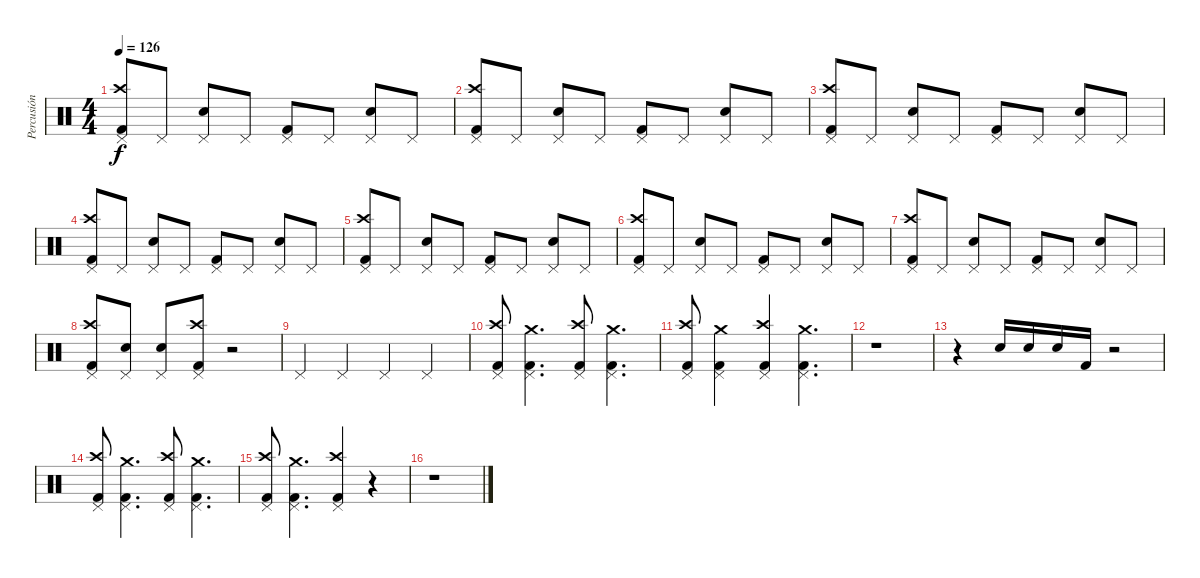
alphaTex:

\track ("Percusión" "Percusión") {instrument percussion}
\staff {score}
\articulation defaults
\ts (4 4)
\tempo 126
\clef neutral
\ks c
("Pedal Hi-Hat (hit)" "Crash high (hit)" "Kick (hit) 2").8{dy f} "Pedal Hi-Hat (hit)".8 ("Pedal Hi-Hat (hit)" "Snare (hit) 2").8 "Pedal Hi-Hat (hit)".8 ("Pedal Hi-Hat (hit)" "Kick (hit) 2").8 "Pedal Hi-Hat (hit)".8 ("Pedal Hi-Hat (hit)" "Snare (hit) 2").8 "Pedal Hi-Hat (hit)".8 |
("Pedal Hi-Hat (hit)" "Crash high (hit)" "Kick (hit) 2").8 "Pedal Hi-Hat (hit)".8 ("Pedal Hi-Hat (hit)" "Snare (hit) 2").8 "Pedal Hi-Hat (hit)".8 ("Pedal Hi-Hat (hit)" "Kick (hit) 2").8 "Pedal Hi-Hat (hit)".8 ("Pedal Hi-Hat (hit)" "Snare (hit) 2").8 "Pedal Hi-Hat (hit)".8 |
("Pedal Hi-Hat (hit)" "Crash high (hit)" "Kick (hit) 2").8 "Pedal Hi-Hat (hit)".8 ("Pedal Hi-Hat (hit)" "Snare (hit) 2").8 "Pedal Hi-Hat (hit)".8 ("Pedal Hi-Hat (hit)" "Kick (hit) 2").8 "Pedal Hi-Hat (hit)".8 ("Pedal Hi-Hat (hit)" "Snare (hit) 2").8 "Pedal Hi-Hat (hit)".8 |
("Pedal Hi-Hat (hit)" "Crash high (hit)" "Kick (hit) 2").8 "Pedal Hi-Hat (hit)".8 ("Pedal Hi-Hat (hit)" "Snare (hit) 2").8 "Pedal Hi-Hat (hit)".8 ("Pedal Hi-Hat (hit)" "Kick (hit) 2").8 "Pedal Hi-Hat (hit)".8 ("Pedal Hi-Hat (hit)" "Snare (hit) 2").8 "Pedal Hi-Hat (hit)".8 |
("Pedal Hi-Hat (hit)" "Crash high (hit)" "Kick (hit) 2").8 "Pedal Hi-Hat (hit)".8 ("Pedal Hi-Hat (hit)" "Snare (hit) 2").8 "Pedal Hi-Hat (hit)".8 ("Pedal Hi-Hat (hit)" "Kick (hit) 2").8 "Pedal Hi-Hat (hit)".8 ("Pedal Hi-Hat (hit)" "Snare (hit) 2").8 "Pedal Hi-Hat (hit)".8 |
("Pedal Hi-Hat (hit)" "Crash high (hit)" "Kick (hit) 2").8 "Pedal Hi-Hat (hit)".8 ("Pedal Hi-Hat (hit)" "Snare (hit) 2").8 "Pedal Hi-Hat (hit)".8 ("Pedal Hi-Hat (hit)" "Kick (hit) 2").8 "Pedal Hi-Hat (hit)".8 ("Pedal Hi-Hat (hit)" "Snare (hit) 2").8 "Pedal Hi-Hat (hit)".8 |
("Pedal Hi-Hat (hit)" "Crash high (hit)" "Kick (hit) 2").8 "Pedal Hi-Hat (hit)".8 ("Pedal Hi-Hat (hit)" "Snare (hit) 2").8 "Pedal Hi-Hat (hit)".8 ("Pedal Hi-Hat (hit)" "Kick (hit) 2").8 "Pedal Hi-Hat (hit)".8 ("Pedal Hi-Hat (hit)" "Snare (hit) 2").8 "Pedal Hi-Hat (hit)".8 |
("Pedal Hi-Hat (hit)" "Crash high (hit)" "Kick (hit) 2").8 ("Pedal Hi-Hat (hit)" "Snare (hit) 2").8 ("Pedal Hi-Hat (hit)" "Snare (hit) 2").8 ("Pedal Hi-Hat (hit)" "Crash high (hit)" "Kick (hit) 2").8 r.2 |
"Pedal Hi-Hat (hit)".4 "Pedal Hi-Hat (hit)".4 "Pedal Hi-Hat (hit)".4 "Pedal Hi-Hat (hit)".4 |
("Pedal Hi-Hat (hit)" "Crash high (hit)" "Kick (hit) 2").8 ("Pedal Hi-Hat (hit)" "Crash medium (hit)" "Kick (hit) 2").4{d} ("Pedal Hi-Hat (hit)" "Crash high (hit)" "Kick (hit) 2").8 ("Pedal Hi-Hat (hit)" "Crash medium (hit)" "Kick (hit) 2").4{d} |
("Pedal Hi-Hat (hit)" "Crash high (hit)" "Kick (hit) 2").8 ("Pedal Hi-Hat (hit)" "Crash medium (hit)" "Kick (hit) 2").4 ("Pedal Hi-Hat (hit)" "Crash high (hit)" "Kick (hit) 2").4 ("Pedal Hi-Hat (hit)" "Crash medium (hit)" "Kick (hit) 2").4{d} |
r.1 |
r.4 "Snare (hit) 2".16 "Snare (hit) 2".16 "Snare (hit) 2".16 "Kick (hit) 2".16 r.2 |
("Pedal Hi-Hat (hit)" "Crash high (hit)" "Kick (hit) 2").8 ("Pedal Hi-Hat (hit)" "Crash medium (hit)" "Kick (hit) 2").4{d} ("Pedal Hi-Hat (hit)" "Crash high (hit)" "Kick (hit) 2").8 ("Pedal Hi-Hat (hit)" "Crash medium (hit)" "Kick (hit) 2").4{d} |
("Pedal Hi-Hat (hit)" "Crash high (hit)" "Kick (hit) 2").8 ("Pedal Hi-Hat (hit)" "Crash medium (hit)" "Kick (hit) 2").4{d} ("Pedal Hi-Hat (hit)" "Crash high (hit)" "Kick (hit) 2").4 r.4 |
r.1
